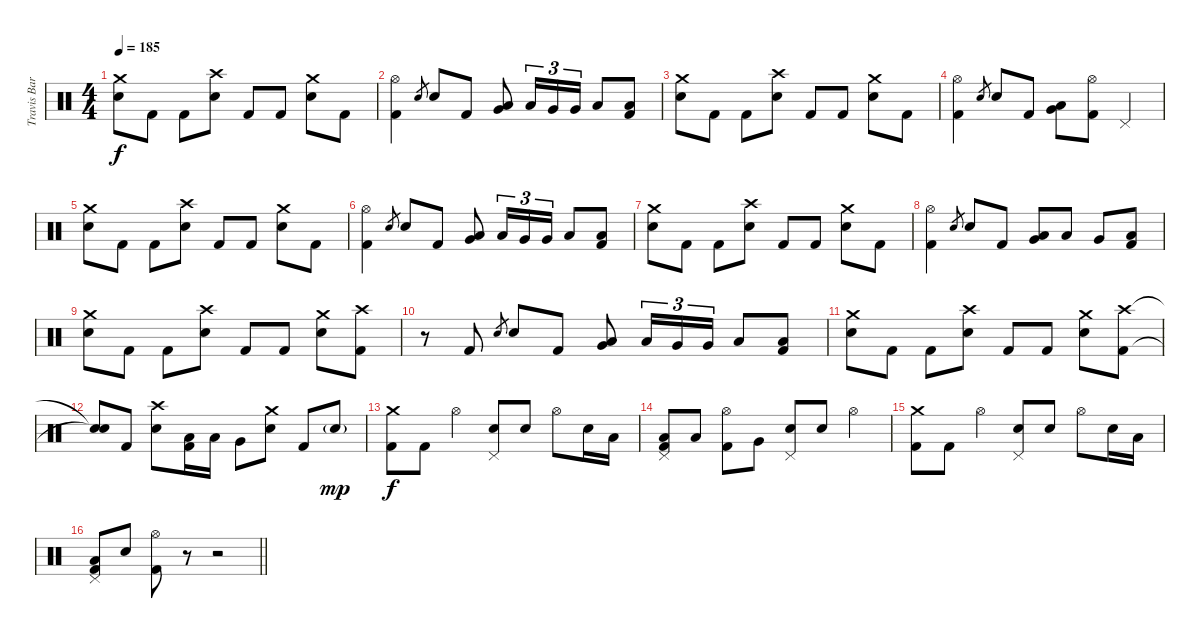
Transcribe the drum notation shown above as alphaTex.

\track ("Travis Barker - Drums" "Travis Bar") {instrument percussion}
\staff {score}
\articulation defaults
\ts (4 4)
\tempo 185
\clef neutral
\ks c
("Crash medium (hit)" "Electric Snare (hit)").8{dy f} "Kick (hit) 2".8 "Kick (hit) 2".8 ("Crash high (hit)" "Electric Snare (hit)").8 "Kick (hit) 2".8 "Kick (hit) 2".8 ("Crash medium (hit)" "Electric Snare (hit)").8 "Kick (hit) 2".8 |
("Hi-Hat (open)" "Kick (hit) 2").4 "Electric Snare (hit)".8{gr} "Electric Snare (hit)".8 "Kick (hit) 2".8 ("Low Tom (hit)" "Very Low Tom (hit)").8 "Low Tom (hit)".16{tu (3 2)} "Very Low Tom (hit)".16{tu (3 2)} "Very Low Tom (hit)".16{tu (3 2)} "Low Floor Tom (hit)".8 ("Low Floor Tom (hit)" "Kick (hit) 2").8 |
("Crash medium (hit)" "Electric Snare (hit)").8 "Kick (hit) 2".8 "Kick (hit) 2".8 ("Crash high (hit)" "Electric Snare (hit)").8 "Kick (hit) 2".8 "Kick (hit) 2".8 ("Crash medium (hit)" "Electric Snare (hit)").8 "Kick (hit) 2".8 |
("Hi-Hat (open)" "Kick (hit) 2").4 "Electric Snare (hit)".8{gr} "Electric Snare (hit)".8 "Kick (hit) 2".8 ("Low Tom (hit)" "Very Low Tom (hit)").8 ("Hi-Hat (open)" "Kick (hit) 2").8 "Pedal Hi-Hat (hit)".4 |
("Crash medium (hit)" "Electric Snare (hit)").8 "Kick (hit) 2".8 "Kick (hit) 2".8 ("Crash high (hit)" "Electric Snare (hit)").8 "Kick (hit) 2".8 "Kick (hit) 2".8 ("Crash medium (hit)" "Electric Snare (hit)").8 "Kick (hit) 2".8 |
("Hi-Hat (open)" "Kick (hit) 2").4 "Electric Snare (hit)".8{gr} "Electric Snare (hit)".8 "Kick (hit) 2".8 ("Low Tom (hit)" "Very Low Tom (hit)").8 "Low Tom (hit)".16{tu (3 2)} "Very Low Tom (hit)".16{tu (3 2)} "Very Low Tom (hit)".16{tu (3 2)} "Low Floor Tom (hit)".8 ("Low Floor Tom (hit)" "Kick (hit) 2").8 |
("Crash medium (hit)" "Electric Snare (hit)").8 "Kick (hit) 2".8 "Kick (hit) 2".8 ("Crash high (hit)" "Electric Snare (hit)").8 "Kick (hit) 2".8 "Kick (hit) 2".8 ("Crash medium (hit)" "Electric Snare (hit)").8 "Kick (hit) 2".8 |
("Hi-Hat (open)" "Kick (hit) 2").4 "Electric Snare (hit)".8{gr} "Electric Snare (hit)".8 "Kick (hit) 2".8 ("Low Tom (hit)" "Very Low Tom (hit)").8 "Low Tom (hit)".8 "Very Low Tom (hit)".8 ("Low Floor Tom (hit)" "Kick (hit) 2").8 |
("Crash medium (hit)" "Electric Snare (hit)").8 "Kick (hit) 2".8 "Kick (hit) 2".8 ("Crash high (hit)" "Electric Snare (hit)").8 "Kick (hit) 2".8 "Kick (hit) 2".8 ("Crash medium (hit)" "Electric Snare (hit)").8 ("Crash high (hit)" "Kick (hit) 2").8 |
r.8 "Kick (hit) 2".8 "Electric Snare (hit)".8{gr} "Electric Snare (hit)".8 "Kick (hit) 2".8 ("Low Tom (hit)" "Very Low Tom (hit)").8 "Low Tom (hit)".16{tu (3 2)} "Very Low Tom (hit)".16{tu (3 2)} "Very Low Tom (hit)".16{tu (3 2)} "Low Floor Tom (hit)".8 ("Low Floor Tom (hit)" "Kick (hit) 2").8 |
("Crash medium (hit)" "Electric Snare (hit)").8 "Kick (hit) 2".8 "Kick (hit) 2".8 ("Crash high (hit)" "Electric Snare (hit)").8 "Kick (hit) 2".8 "Kick (hit) 2".8 ("Crash medium (hit)" "Electric Snare (hit)").8 ("Crash high (hit)" "Kick (hit) 2").8 |
("Snare (hit)"{t} "Snare (hit)"{t}).8 "Kick (hit) 2".8 ("Crash high (hit)" "Electric Snare (hit)").8 ("Low Tom (hit)" "Kick (hit) 2").16 "Low Tom (hit)".16 "Very Low Tom (hit)".8 ("Crash medium (hit)" "Electric Snare (hit)").8 "Kick (hit) 2".8 "Electric Snare (hit)"{g}.8{dy mp} |
("Crash medium (hit)" "Kick (hit) 2").8{dy f} "Kick (hit) 2".8 "Hi-Hat (open)".4 ("Pedal Hi-Hat (hit)" "Electric Snare (hit)").8 "Electric Snare (hit)".8 "Hi-Hat (open)".8 "Electric Snare (hit)".16 "Low Tom (hit)".16 |
("Pedal Hi-Hat (hit)" "Low Floor Tom (hit)" "Kick (hit) 2").8 "Low Tom (hit)".8 ("Hi-Hat (open)" "Kick (hit) 2").8 "Very Low Tom (hit)".8 ("Pedal Hi-Hat (hit)" "Electric Snare (hit)").8 "Electric Snare (hit)".8 "Hi-Hat (open)".4 |
("Crash medium (hit)" "Kick (hit) 2").8 "Kick (hit) 2".8 "Hi-Hat (open)".4 ("Pedal Hi-Hat (hit)" "Electric Snare (hit)").8 "Electric Snare (hit)".8 "Hi-Hat (open)".8 "Electric Snare (hit)".16 "Low Tom (hit)".16 |
\barLineRight lightlight
("Pedal Hi-Hat (hit)" "Low Floor Tom (hit)" "Kick (hit) 2").8 "Electric Snare (hit)".8 ("Hi-Hat (open)" "Kick (hit) 2").8 r.8 r.2
